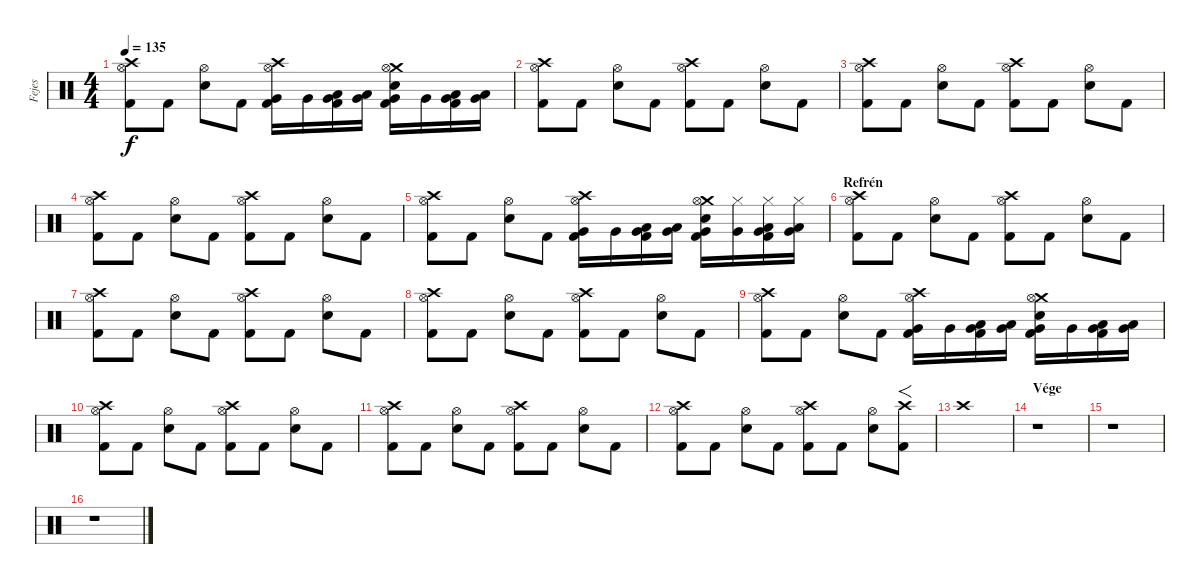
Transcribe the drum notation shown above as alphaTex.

\track ("Fejes" "Fejes") {instrument percussion}
\staff {score}
\articulation defaults
\ts (4 4)
\tempo 135
\clef neutral
\ks c
("Crash high (hit)" "Hi-Hat (open)" "Kick (hit) 2").8{dy f} "Kick (hit) 2".8 ("Hi-Hat (open)" "Electric Snare (hit)").8 "Kick (hit) 2".8 ("Crash high (hit)" "Hi-Hat (open)" "Very Low Tom (hit)" "Kick (hit) 2").16 "Very Low Tom (hit)".16 ("Very Low Tom (hit)" "Low Tom (hit)" "Kick (hit) 2").16 ("Very Low Tom (hit)" "Low Tom (hit)").16 ("Crash medium (hit)" "Hi-Hat (open)" "Electric Snare (hit)" "Very Low Tom (hit)" "Kick (hit) 2").16 "Very Low Tom (hit)".16 ("Very Low Tom (hit)" "Low Tom (hit)" "Kick (hit) 2").16 ("Very Low Tom (hit)" "Low Tom (hit)").16 |
("Crash high (hit)" "Hi-Hat (open)" "Kick (hit) 2").8 "Kick (hit) 2".8 ("Hi-Hat (open)" "Electric Snare (hit)").8 "Kick (hit) 2".8 ("Crash high (hit)" "Hi-Hat (open)" "Kick (hit) 2").8 "Kick (hit) 2".8 ("Hi-Hat (open)" "Electric Snare (hit)").8 "Kick (hit) 2".8 |
("Crash high (hit)" "Hi-Hat (open)" "Kick (hit) 2").8 "Kick (hit) 2".8 ("Hi-Hat (open)" "Electric Snare (hit)").8 "Kick (hit) 2".8 ("Crash high (hit)" "Hi-Hat (open)" "Kick (hit) 2").8 "Kick (hit) 2".8 ("Hi-Hat (open)" "Electric Snare (hit)").8 "Kick (hit) 2".8 |
("Crash high (hit)" "Hi-Hat (open)" "Kick (hit) 2").8 "Kick (hit) 2".8 ("Hi-Hat (open)" "Electric Snare (hit)").8 "Kick (hit) 2".8 ("Crash high (hit)" "Hi-Hat (open)" "Kick (hit) 2").8 "Kick (hit) 2".8 ("Hi-Hat (open)" "Electric Snare (hit)").8 "Kick (hit) 2".8 |
("Crash high (hit)" "Hi-Hat (open)" "Kick (hit) 2").8 "Kick (hit) 2".8 ("Hi-Hat (open)" "Electric Snare (hit)").8 "Kick (hit) 2".8 ("Crash high (hit)" "Hi-Hat (open)" "Very Low Tom (hit)" "Kick (hit) 2").16 "Very Low Tom (hit)".16 ("Very Low Tom (hit)" "Low Tom (hit)" "Kick (hit) 2").16 ("Very Low Tom (hit)" "Low Tom (hit)").16 ("Crash medium (hit)" "Hi-Hat (open)" "Electric Snare (hit)" "Very Low Tom (hit)" "Kick (hit) 2").16 ("Hi-Hat (closed)" "Very Low Tom (hit)").16 ("Hi-Hat (closed)" "Very Low Tom (hit)" "Low Tom (hit)" "Kick (hit) 2").16 ("Hi-Hat (closed)" "Very Low Tom (hit)" "Low Tom (hit)").16 |
\section ("" "Refrén")
("Crash high (hit)" "Hi-Hat (open)" "Kick (hit) 2").8 "Kick (hit) 2".8 ("Hi-Hat (open)" "Electric Snare (hit)").8 "Kick (hit) 2".8 ("Crash high (hit)" "Hi-Hat (open)" "Kick (hit) 2").8 "Kick (hit) 2".8 ("Hi-Hat (open)" "Electric Snare (hit)").8 "Kick (hit) 2".8 |
("Crash high (hit)" "Hi-Hat (open)" "Kick (hit) 2").8 "Kick (hit) 2".8 ("Hi-Hat (open)" "Electric Snare (hit)").8 "Kick (hit) 2".8 ("Crash high (hit)" "Hi-Hat (open)" "Kick (hit) 2").8 "Kick (hit) 2".8 ("Hi-Hat (open)" "Electric Snare (hit)").8 "Kick (hit) 2".8 |
("Crash high (hit)" "Hi-Hat (open)" "Kick (hit) 2").8 "Kick (hit) 2".8 ("Hi-Hat (open)" "Electric Snare (hit)").8 "Kick (hit) 2".8 ("Crash high (hit)" "Hi-Hat (open)" "Kick (hit) 2").8 "Kick (hit) 2".8 ("Hi-Hat (open)" "Electric Snare (hit)").8 "Kick (hit) 2".8 |
("Crash high (hit)" "Hi-Hat (open)" "Kick (hit) 2").8 "Kick (hit) 2".8 ("Hi-Hat (open)" "Electric Snare (hit)").8 "Kick (hit) 2".8 ("Crash high (hit)" "Hi-Hat (open)" "Very Low Tom (hit)" "Kick (hit) 2").16 "Very Low Tom (hit)".16 ("Very Low Tom (hit)" "Low Tom (hit)" "Kick (hit) 2").16 ("Very Low Tom (hit)" "Low Tom (hit)").16 ("Crash medium (hit)" "Hi-Hat (open)" "Electric Snare (hit)" "Very Low Tom (hit)" "Kick (hit) 2").16 "Very Low Tom (hit)".16 ("Very Low Tom (hit)" "Low Tom (hit)" "Kick (hit) 2").16 ("Very Low Tom (hit)" "Low Tom (hit)").16 |
("Crash high (hit)" "Hi-Hat (open)" "Kick (hit) 2").8 "Kick (hit) 2".8 ("Hi-Hat (open)" "Electric Snare (hit)").8 "Kick (hit) 2".8 ("Crash high (hit)" "Hi-Hat (open)" "Kick (hit) 2").8 "Kick (hit) 2".8 ("Hi-Hat (open)" "Electric Snare (hit)").8 "Kick (hit) 2".8 |
("Crash high (hit)" "Hi-Hat (open)" "Kick (hit) 2").8 "Kick (hit) 2".8 ("Hi-Hat (open)" "Electric Snare (hit)").8 "Kick (hit) 2".8 ("Crash high (hit)" "Hi-Hat (open)" "Kick (hit) 2").8 "Kick (hit) 2".8 ("Hi-Hat (open)" "Electric Snare (hit)").8 "Kick (hit) 2".8 |
("Crash high (hit)" "Hi-Hat (open)" "Kick (hit) 2").8 "Kick (hit) 2".8 ("Hi-Hat (open)" "Electric Snare (hit)").8 "Kick (hit) 2".8 ("Crash high (hit)" "Hi-Hat (open)" "Kick (hit) 2").8 "Kick (hit) 2".8 ("Hi-Hat (open)" "Electric Snare (hit)").8 ("Crash high (hit)" "Kick (hit) 2").8{f} |
"Crash high (hit)".1 |
\section ("" "Vége")
r.1 |
r.1 |
r.1
